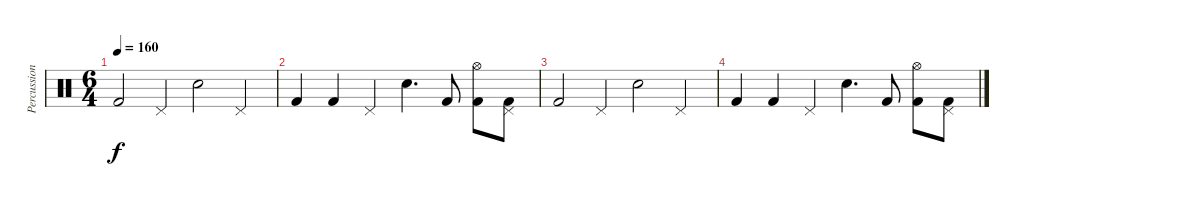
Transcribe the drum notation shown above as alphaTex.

\track ("Percussion" "Percussion") {instrument percussion}
\staff {score}
\articulation defaults
\ts (6 4)
\tempo 160
\clef neutral
\ks c "Kick (hit) 2".2{dy f} "Pedal Hi-Hat (hit)".4 "Electric Snare (hit)".2 "Pedal Hi-Hat (hit)".4
|
"Kick (hit) 2".4 "Kick (hit) 2".4 "Pedal Hi-Hat (hit)".4 "Electric Snare (hit)".4{d} "Kick (hit) 2".8 ("Hi-Hat (open)" "Kick (hit) 2").8 ("Pedal Hi-Hat (hit)" "Kick (hit) 2").8 |
"Kick (hit) 2".2 "Pedal Hi-Hat (hit)".4 "Electric Snare (hit)".2 "Pedal Hi-Hat (hit)".4 |
"Kick (hit) 2".4 "Kick (hit) 2".4 "Pedal Hi-Hat (hit)".4 "Electric Snare (hit)".4{d} "Kick (hit) 2".8 ("Hi-Hat (open)" "Kick (hit) 2").8 ("Pedal Hi-Hat (hit)" "Kick (hit) 2").8
